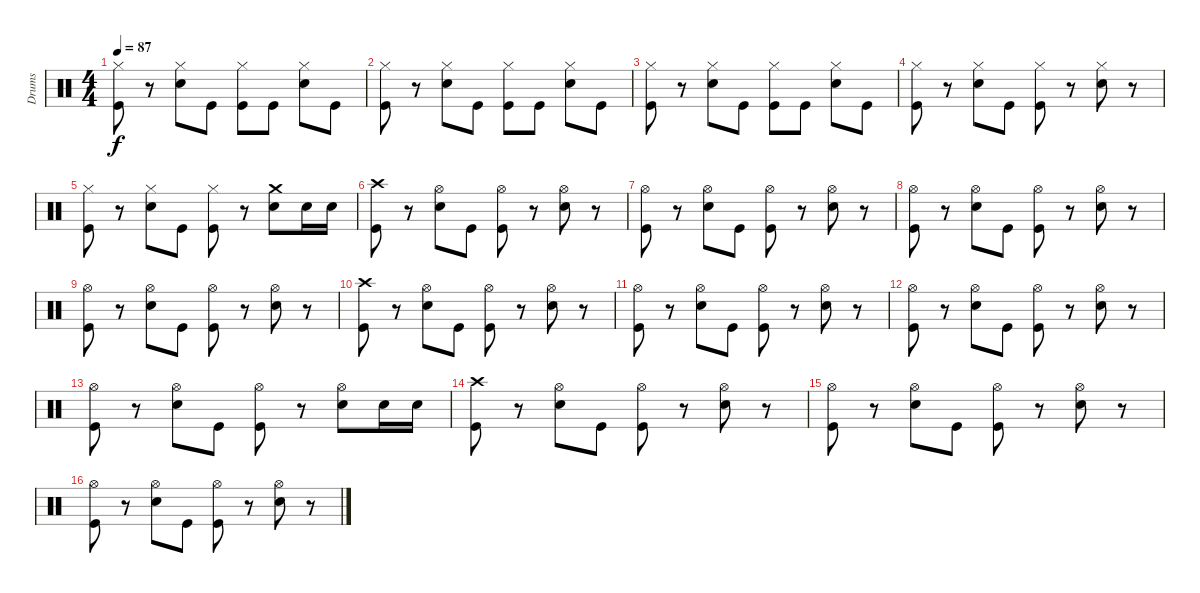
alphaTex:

\track ("Drums" "Drums") {instrument percussion}
\staff {score}
\articulation defaults
\ts (4 4)
\tempo 87
\clef neutral
\ks c
("Hi-Hat (closed)" "Kick (hit)").8{dy f} r.8 ("Hi-Hat (closed)" "Electric Snare (hit)").8 "Kick (hit)".8 ("Hi-Hat (closed)" "Kick (hit)").8 "Kick (hit)".8 ("Hi-Hat (closed)" "Electric Snare (hit)").8 "Kick (hit)".8 |
("Hi-Hat (closed)" "Kick (hit)").8 r.8 ("Hi-Hat (closed)" "Electric Snare (hit)").8 "Kick (hit)".8 ("Hi-Hat (closed)" "Kick (hit)").8 "Kick (hit)".8 ("Hi-Hat (closed)" "Electric Snare (hit)").8 "Kick (hit)".8 |
("Hi-Hat (closed)" "Kick (hit)").8 r.8 ("Hi-Hat (closed)" "Electric Snare (hit)").8 "Kick (hit)".8 ("Hi-Hat (closed)" "Kick (hit)").8 "Kick (hit)".8 ("Hi-Hat (closed)" "Electric Snare (hit)").8 "Kick (hit)".8 |
("Hi-Hat (closed)" "Kick (hit)").8 r.8 ("Hi-Hat (closed)" "Electric Snare (hit)").8 "Kick (hit)".8 ("Hi-Hat (closed)" "Kick (hit)").8 r.8 ("Hi-Hat (closed)" "Electric Snare (hit)").8 r.8 |
("Hi-Hat (closed)" "Kick (hit)").8 r.8 ("Hi-Hat (closed)" "Electric Snare (hit)").8 "Kick (hit)".8 ("Hi-Hat (closed)" "Kick (hit)").8 r.8 ("Crash medium (hit)" "Electric Snare (hit)").8 "Electric Snare (hit)".16 "Electric Snare (hit)".16 |
("Crash high (hit)" "Kick (hit)").8 r.8 ("Hi-Hat (open)" "Electric Snare (hit)").8 "Kick (hit)".8 ("Hi-Hat (open)" "Kick (hit)").8 r.8 ("Hi-Hat (open)" "Electric Snare (hit)").8 r.8 |
("Hi-Hat (open)" "Kick (hit)").8 r.8 ("Hi-Hat (open)" "Electric Snare (hit)").8 "Kick (hit)".8 ("Hi-Hat (open)" "Kick (hit)").8 r.8 ("Hi-Hat (open)" "Electric Snare (hit)").8 r.8 |
("Hi-Hat (open)" "Kick (hit)").8 r.8 ("Hi-Hat (open)" "Electric Snare (hit)").8 "Kick (hit)".8 ("Hi-Hat (open)" "Kick (hit)").8 r.8 ("Hi-Hat (open)" "Electric Snare (hit)").8 r.8 |
("Hi-Hat (open)" "Kick (hit)").8 r.8 ("Hi-Hat (open)" "Electric Snare (hit)").8 "Kick (hit)".8 ("Hi-Hat (open)" "Kick (hit)").8 r.8 ("Hi-Hat (open)" "Electric Snare (hit)").8 r.8 |
("Crash high (hit)" "Kick (hit)").8 r.8 ("Hi-Hat (open)" "Electric Snare (hit)").8 "Kick (hit)".8 ("Hi-Hat (open)" "Kick (hit)").8 r.8 ("Hi-Hat (open)" "Electric Snare (hit)").8 r.8 |
("Hi-Hat (open)" "Kick (hit)").8 r.8 ("Hi-Hat (open)" "Electric Snare (hit)").8 "Kick (hit)".8 ("Hi-Hat (open)" "Kick (hit)").8 r.8 ("Hi-Hat (open)" "Electric Snare (hit)").8 r.8 |
("Hi-Hat (open)" "Kick (hit)").8 r.8 ("Hi-Hat (open)" "Electric Snare (hit)").8 "Kick (hit)".8 ("Hi-Hat (open)" "Kick (hit)").8 r.8 ("Hi-Hat (open)" "Electric Snare (hit)").8 r.8 |
("Hi-Hat (open)" "Kick (hit)").8 r.8 ("Hi-Hat (open)" "Electric Snare (hit)").8 "Kick (hit)".8 ("Hi-Hat (open)" "Kick (hit)").8 r.8 ("Hi-Hat (open)" "Electric Snare (hit)").8 "Electric Snare (hit)".16 "Electric Snare (hit)".16 |
("Crash high (hit)" "Kick (hit)").8 r.8 ("Hi-Hat (open)" "Electric Snare (hit)").8 "Kick (hit)".8 ("Hi-Hat (open)" "Kick (hit)").8 r.8 ("Hi-Hat (open)" "Electric Snare (hit)").8 r.8 |
("Hi-Hat (open)" "Kick (hit)").8 r.8 ("Hi-Hat (open)" "Electric Snare (hit)").8 "Kick (hit)".8 ("Hi-Hat (open)" "Kick (hit)").8 r.8 ("Hi-Hat (open)" "Electric Snare (hit)").8 r.8 |
("Hi-Hat (open)" "Kick (hit)").8 r.8 ("Hi-Hat (open)" "Electric Snare (hit)").8 "Kick (hit)".8 ("Hi-Hat (open)" "Kick (hit)").8 r.8 ("Hi-Hat (open)" "Electric Snare (hit)").8 r.8
